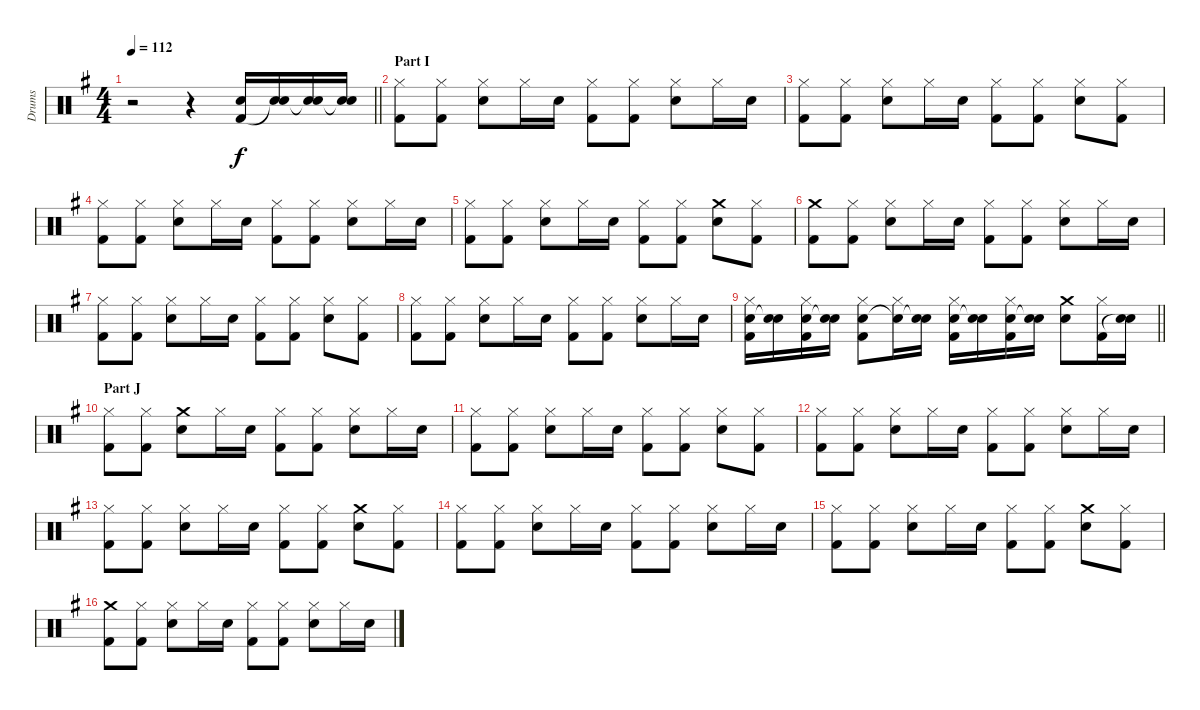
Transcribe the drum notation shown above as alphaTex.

\track ("Drums" "Drums") {instrument percussion}
\staff {score}
\articulation defaults
\ts (4 4)
\tempo 112
\clef neutral
\barLineRight lightlight
\ks g
r.2{dy f} r.4 ("Electric Snare (hit)" "Kick (hit) 2").16 ("Electric Snare (hit)" "Snare (hit)"{t}).16 ("Electric Snare (hit)" "Snare (hit)"{t}).16 ("Electric Snare (hit)" "Snare (hit)"{t}).16 |
\section ("" "Part I")
("Hi-Hat (closed)" "Kick (hit) 2").8 ("Hi-Hat (closed)" "Kick (hit) 2").8 ("Hi-Hat (closed)" "Electric Snare (hit)").8 "Hi-Hat (closed)".16 "Electric Snare (hit)".16 ("Hi-Hat (closed)" "Kick (hit) 2").8 ("Hi-Hat (closed)" "Kick (hit) 2").8 ("Hi-Hat (closed)" "Electric Snare (hit)").8 "Hi-Hat (closed)".16 "Electric Snare (hit)".16 |
("Hi-Hat (closed)" "Kick (hit) 2").8 ("Hi-Hat (closed)" "Kick (hit) 2").8 ("Hi-Hat (closed)" "Electric Snare (hit)").8 "Hi-Hat (closed)".16 "Electric Snare (hit)".16 ("Hi-Hat (closed)" "Kick (hit) 2").8 ("Hi-Hat (closed)" "Kick (hit) 2").8 ("Hi-Hat (closed)" "Electric Snare (hit)").8 ("Hi-Hat (closed)" "Kick (hit) 2").8 |
("Hi-Hat (closed)" "Kick (hit) 2").8 ("Hi-Hat (closed)" "Kick (hit) 2").8 ("Hi-Hat (closed)" "Electric Snare (hit)").8 "Hi-Hat (closed)".16 "Electric Snare (hit)".16 ("Hi-Hat (closed)" "Kick (hit) 2").8 ("Hi-Hat (closed)" "Kick (hit) 2").8 ("Hi-Hat (closed)" "Electric Snare (hit)").8 "Hi-Hat (closed)".16 "Electric Snare (hit)".16 |
("Hi-Hat (closed)" "Kick (hit) 2").8 ("Hi-Hat (closed)" "Kick (hit) 2").8 ("Hi-Hat (closed)" "Electric Snare (hit)").8 "Hi-Hat (closed)".16 "Electric Snare (hit)".16 ("Hi-Hat (closed)" "Kick (hit) 2").8 ("Hi-Hat (closed)" "Kick (hit) 2").8 ("Crash medium (hit)" "Electric Snare (hit)").8 ("Hi-Hat (closed)" "Kick (hit) 2").8 |
("Crash medium (hit)" "Kick (hit) 2").8 ("Hi-Hat (closed)" "Kick (hit) 2").8 ("Hi-Hat (closed)" "Electric Snare (hit)").8 "Hi-Hat (closed)".16 "Electric Snare (hit)".16 ("Hi-Hat (closed)" "Kick (hit) 2").8 ("Hi-Hat (closed)" "Kick (hit) 2").8 ("Hi-Hat (closed)" "Electric Snare (hit)").8 "Hi-Hat (closed)".16 "Electric Snare (hit)".16 |
("Hi-Hat (closed)" "Kick (hit) 2").8 ("Hi-Hat (closed)" "Kick (hit) 2").8 ("Hi-Hat (closed)" "Electric Snare (hit)").8 "Hi-Hat (closed)".16 "Electric Snare (hit)".16 ("Hi-Hat (closed)" "Kick (hit) 2").8 ("Hi-Hat (closed)" "Kick (hit) 2").8 ("Hi-Hat (closed)" "Electric Snare (hit)").8 ("Hi-Hat (closed)" "Kick (hit) 2").8 |
("Hi-Hat (closed)" "Kick (hit) 2").8 ("Hi-Hat (closed)" "Kick (hit) 2").8 ("Hi-Hat (closed)" "Electric Snare (hit)").8 "Hi-Hat (closed)".16 "Electric Snare (hit)".16 ("Hi-Hat (closed)" "Kick (hit) 2").8 ("Hi-Hat (closed)" "Kick (hit) 2").8 ("Hi-Hat (closed)" "Electric Snare (hit)").8 "Hi-Hat (closed)".16 "Electric Snare (hit)".16 |
\barLineRight lightlight
("Hi-Hat (closed)" "Electric Snare (hit)" "Kick (hit) 2").16 ("Electric Snare (hit)" "Snare (hit)"{t}).16 ("Hi-Hat (closed)" "Electric Snare (hit)" "Kick (hit) 2").16 ("Electric Snare (hit)" "Snare (hit)"{t}).16 ("Hi-Hat (closed)" "Electric Snare (hit)" "Kick (hit) 2").8 ("Hi-Hat (closed)" "Snare (hit)"{t}).16 ("Electric Snare (hit)" "Snare (hit)"{t}).16 ("Hi-Hat (closed)" "Electric Snare (hit)" "Kick (hit) 2").16 ("Electric Snare (hit)" "Snare (hit)"{t}).16 ("Hi-Hat (closed)" "Electric Snare (hit)" "Kick (hit) 2").16 ("Electric Snare (hit)" "Snare (hit)"{t}).16 ("Crash medium (hit)" "Electric Snare (hit)").8 ("Hi-Hat (closed)" "Kick (hit) 2").16 ("Electric Snare (hit)" "Snare (hit)"{t}).16 |
\section ("" "Part J")
("Hi-Hat (closed)" "Kick (hit) 2").8 ("Hi-Hat (closed)" "Kick (hit) 2").8 ("Crash medium (hit)" "Electric Snare (hit)").8 "Hi-Hat (closed)".16 "Electric Snare (hit)".16 ("Hi-Hat (closed)" "Kick (hit) 2").8 ("Hi-Hat (closed)" "Kick (hit) 2").8 ("Hi-Hat (closed)" "Electric Snare (hit)").8 "Hi-Hat (closed)".16 "Electric Snare (hit)".16 |
("Hi-Hat (closed)" "Kick (hit) 2").8 ("Hi-Hat (closed)" "Kick (hit) 2").8 ("Hi-Hat (closed)" "Electric Snare (hit)").8 "Hi-Hat (closed)".16 "Electric Snare (hit)".16 ("Hi-Hat (closed)" "Kick (hit) 2").8 ("Hi-Hat (closed)" "Kick (hit) 2").8 ("Hi-Hat (closed)" "Electric Snare (hit)").8 ("Hi-Hat (closed)" "Kick (hit) 2").8 |
("Hi-Hat (closed)" "Kick (hit) 2").8 ("Hi-Hat (closed)" "Kick (hit) 2").8 ("Hi-Hat (closed)" "Electric Snare (hit)").8 "Hi-Hat (closed)".16 "Electric Snare (hit)".16 ("Hi-Hat (closed)" "Kick (hit) 2").8 ("Hi-Hat (closed)" "Kick (hit) 2").8 ("Hi-Hat (closed)" "Electric Snare (hit)").8 "Hi-Hat (closed)".16 "Electric Snare (hit)".16 |
("Hi-Hat (closed)" "Kick (hit) 2").8 ("Hi-Hat (closed)" "Kick (hit) 2").8 ("Hi-Hat (closed)" "Electric Snare (hit)").8 "Hi-Hat (closed)".16 "Electric Snare (hit)".16 ("Hi-Hat (closed)" "Kick (hit) 2").8 ("Hi-Hat (closed)" "Kick (hit) 2").8 ("Crash medium (hit)" "Electric Snare (hit)").8 ("Hi-Hat (closed)" "Kick (hit) 2").8 |
("Hi-Hat (closed)" "Kick (hit) 2").8 ("Hi-Hat (closed)" "Kick (hit) 2").8 ("Hi-Hat (closed)" "Electric Snare (hit)").8 "Hi-Hat (closed)".16 "Electric Snare (hit)".16 ("Hi-Hat (closed)" "Kick (hit) 2").8 ("Hi-Hat (closed)" "Kick (hit) 2").8 ("Hi-Hat (closed)" "Electric Snare (hit)").8 "Hi-Hat (closed)".16 "Electric Snare (hit)".16 |
("Hi-Hat (closed)" "Kick (hit) 2").8 ("Hi-Hat (closed)" "Kick (hit) 2").8 ("Hi-Hat (closed)" "Electric Snare (hit)").8 "Hi-Hat (closed)".16 "Electric Snare (hit)".16 ("Hi-Hat (closed)" "Kick (hit) 2").8 ("Hi-Hat (closed)" "Kick (hit) 2").8 ("Crash medium (hit)" "Electric Snare (hit)").8 ("Hi-Hat (closed)" "Kick (hit) 2").8 |
("Crash medium (hit)" "Kick (hit) 2").8 ("Hi-Hat (closed)" "Kick (hit) 2").8 ("Hi-Hat (closed)" "Electric Snare (hit)").8 "Hi-Hat (closed)".16 "Electric Snare (hit)".16 ("Hi-Hat (closed)" "Kick (hit) 2").8 ("Hi-Hat (closed)" "Kick (hit) 2").8 ("Hi-Hat (closed)" "Electric Snare (hit)").8 "Hi-Hat (closed)".16 "Electric Snare (hit)".16
